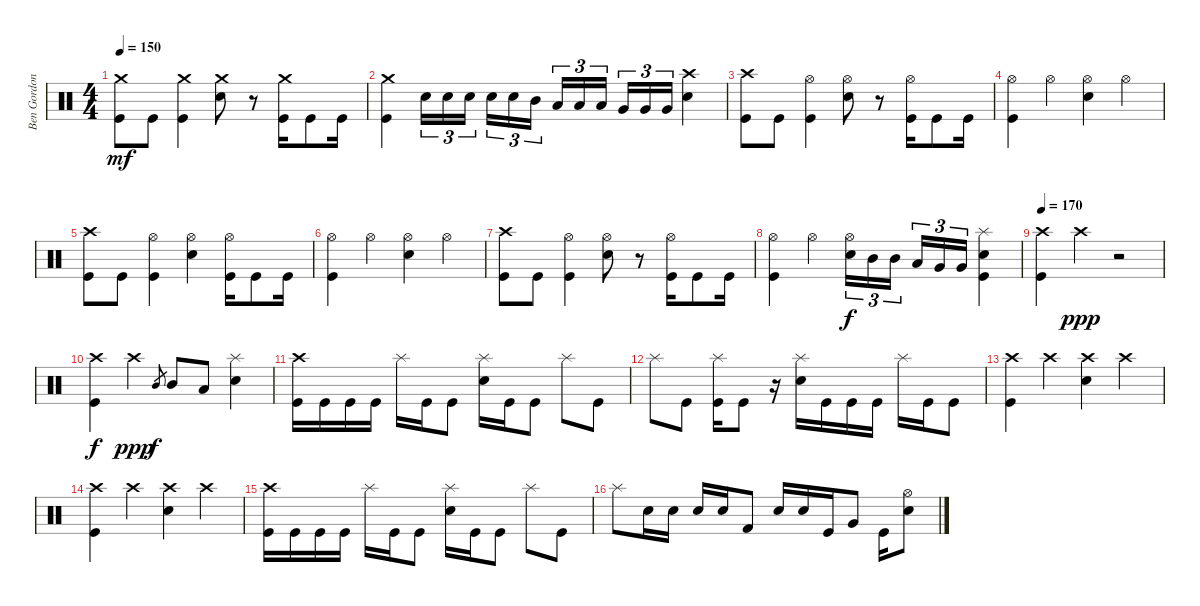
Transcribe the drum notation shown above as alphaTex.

\track ("Ben Gordon" "Ben Gordon") {instrument percussion}
\staff {score}
\articulation defaults
\ts (4 4)
\tempo 150
\clef neutral
\ks c
("Crash medium (hit)" "Kick (hit)").8{dy mf} "Kick (hit)".8 ("Crash medium (hit)" "Kick (hit)").4 ("Crash medium (hit)" "Electric Snare (hit)").8 r.8 ("Crash medium (hit)" "Kick (hit)").16 "Kick (hit)".8 "Kick (hit)".16 |
("Crash medium (hit)" "Kick (hit)").4 "Electric Snare (hit)".16{tu (3 2)} "Electric Snare (hit)".16{tu (3 2)} "Electric Snare (hit)".16{tu (3 2) beam splitsecondary} "Electric Snare (hit)".16{tu (3 2)} "Electric Snare (hit)".16{tu (3 2)} "Mid Tom (hit)".16{tu (3 2)} "Low Tom (hit)".16{tu (3 2)} "Low Tom (hit)".16{tu (3 2)} "Low Tom (hit)".16{tu (3 2) beam splitsecondary} "Very Low Tom (hit)".16{tu (3 2)} "Very Low Tom (hit)".16{tu (3 2)} "Very Low Tom (hit)".16{tu (3 2)} ("Crash high (hit)" "Electric Snare (hit)").4 |
("Crash high (hit)" "Kick (hit)").8 "Kick (hit)".8 ("Hi-Hat (open)" "Kick (hit)").4 ("Hi-Hat (open)" "Electric Snare (hit)").8 r.8 ("Hi-Hat (open)" "Kick (hit)").16 "Kick (hit)".8 "Kick (hit)".16 |
("Hi-Hat (open)" "Kick (hit)").4 "Hi-Hat (open)".4 ("Hi-Hat (open)" "Electric Snare (hit)").4 "Hi-Hat (open)".4 |
("Crash high (hit)" "Kick (hit)").8 "Kick (hit)".8 ("Hi-Hat (open)" "Kick (hit)").4 ("Hi-Hat (open)" "Electric Snare (hit)").4 ("Hi-Hat (open)" "Kick (hit)").16 "Kick (hit)".8 "Kick (hit)".16 |
("Hi-Hat (open)" "Kick (hit)").4 "Hi-Hat (open)".4 ("Hi-Hat (open)" "Electric Snare (hit)").4 "Hi-Hat (open)".4 |
("Crash high (hit)" "Kick (hit)").8 "Kick (hit)".8 ("Hi-Hat (open)" "Kick (hit)").4 ("Hi-Hat (open)" "Electric Snare (hit)").8 r.8 ("Hi-Hat (open)" "Kick (hit)").16 "Kick (hit)".8 "Kick (hit)".16 |
("Hi-Hat (open)" "Kick (hit)").4 "Hi-Hat (open)".4 ("Hi-Hat (open)" "Electric Snare (hit)").16{tu (3 2) dy f} "Mid Tom (hit)".16{tu (3 2)} "Mid Tom (hit)".16{tu (3 2) beam splitsecondary} "Low Tom (hit)".16{tu (3 2)} "Very Low Tom (hit)".16{tu (3 2)} "Very Low Tom (hit)".16{tu (3 2)} ("Splash (hit)" "Electric Snare (hit)" "Kick (hit)").4 |
\tempo 170
("Crash high (hit)" "Kick (hit)").4 "Crash high (hit)".4{dy ppp} r.2 |
("Crash high (hit)" "Kick (hit)").4{dy f} "Crash high (hit)".4{dy ppp} "Mid Tom (hit)".8{gr dy f} "Mid Tom (hit)".8 "Low Tom (hit)".8 ("Splash (hit)" "Electric Snare (hit)").4 |
("Crash high (hit)" "Kick (hit)").16 "Kick (hit)".16 "Kick (hit)".16 "Kick (hit)".16 "Splash (hit)".16 "Kick (hit)".16 "Kick (hit)".8 ("Splash (hit)" "Electric Snare (hit)").16 "Kick (hit)".16 "Kick (hit)".8 "Splash (hit)".8 "Kick (hit)".8 |
"Splash (hit)".8 "Kick (hit)".8 ("Splash (hit)" "Kick (hit)").16 "Kick (hit)".8 r.16 ("Splash (hit)" "Electric Snare (hit)").16 "Kick (hit)".16 "Kick (hit)".16 "Kick (hit)".16 "Splash (hit)".16 "Kick (hit)".16 "Kick (hit)".8 |
("Crash high (hit)" "Kick (hit)").4 "Crash high (hit)".4 ("Crash high (hit)" "Electric Snare (hit)").4 "Crash high (hit)".4 |
("Crash high (hit)" "Kick (hit)").4 "Crash high (hit)".4 ("Crash high (hit)" "Electric Snare (hit)").4 "Crash high (hit)".4 |
("Crash high (hit)" "Kick (hit)").16 "Kick (hit)".16 "Kick (hit)".16 "Kick (hit)".16 "Splash (hit)".16 "Kick (hit)".16 "Kick (hit)".8 ("Splash (hit)" "Electric Snare (hit)").16 "Kick (hit)".16 "Kick (hit)".8 "Splash (hit)".8 "Kick (hit)".8 |
"Splash (hit)".8 "Electric Snare (hit)".16 "Electric Snare (hit)".16 "Electric Snare (hit)".16 "Electric Snare (hit)".16 "Kick (hit) 2".8 "Electric Snare (hit)".16 "Electric Snare (hit)".16 "Kick (hit)".16 "Very Low Tom (hit)".8 "Kick (hit)".16 ("Hi-Hat (open)" "Electric Snare (hit)").8
